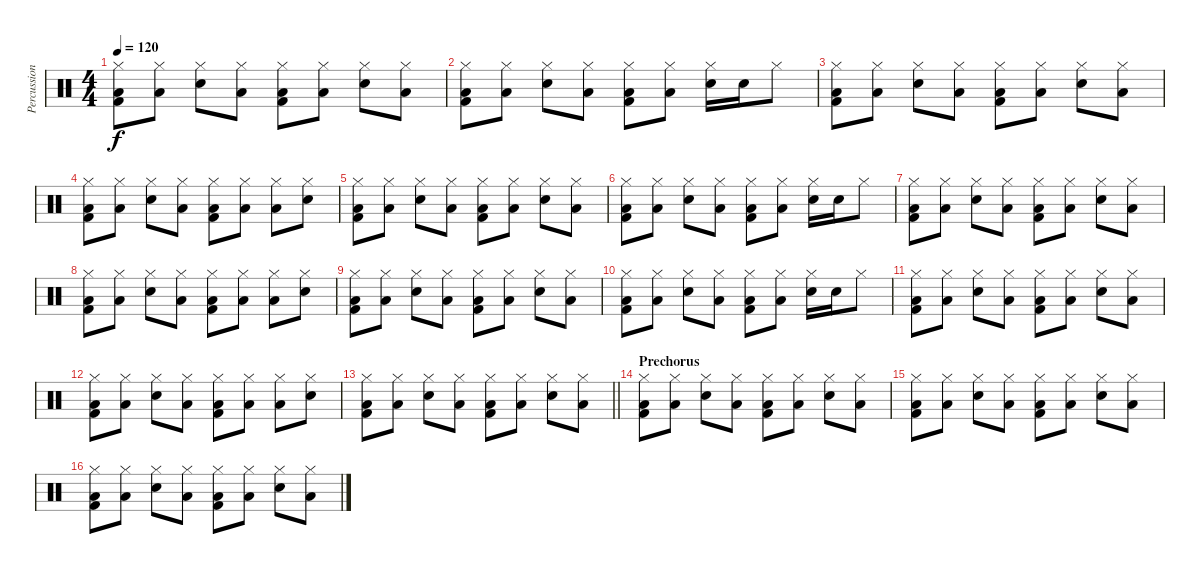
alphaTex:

\track ("Percussion" "Percussion") {instrument percussion}
\staff
\articulation defaults
\ts (4 4)
\tempo 120
\clef neutral
\ks c
("Hi-Hat (closed)" "Low Floor Tom (hit)" "Kick (hit) 2").8{dy f} ("Hi-Hat (closed)" "Low Floor Tom (hit)").8 ("Hi-Hat (closed)" "Snare (hit) 2").8 ("Hi-Hat (closed)" "Low Floor Tom (hit)").8 ("Hi-Hat (closed)" "Low Floor Tom (hit)" "Kick (hit) 2").8 ("Hi-Hat (closed)" "Low Floor Tom (hit)").8 ("Hi-Hat (closed)" "Snare (hit) 2").8 ("Hi-Hat (closed)" "Low Floor Tom (hit)").8 |
("Hi-Hat (closed)" "Low Floor Tom (hit)" "Kick (hit) 2").8 ("Hi-Hat (closed)" "Low Floor Tom (hit)").8 ("Hi-Hat (closed)" "Snare (hit) 2").8 ("Hi-Hat (closed)" "Low Floor Tom (hit)").8 ("Hi-Hat (closed)" "Low Floor Tom (hit)" "Kick (hit) 2").8 ("Hi-Hat (closed)" "Low Floor Tom (hit)").8 ("Hi-Hat (closed)" "Snare (hit) 2").16 "Snare (hit) 2".16 "Hi-Hat (closed)".8 |
("Hi-Hat (closed)" "Low Floor Tom (hit)" "Kick (hit) 2").8 ("Hi-Hat (closed)" "Low Floor Tom (hit)").8 ("Hi-Hat (closed)" "Snare (hit) 2").8 ("Hi-Hat (closed)" "Low Floor Tom (hit)").8 ("Hi-Hat (closed)" "Low Floor Tom (hit)" "Kick (hit) 2").8 ("Hi-Hat (closed)" "Low Floor Tom (hit)").8 ("Hi-Hat (closed)" "Snare (hit) 2").8 ("Hi-Hat (closed)" "Low Floor Tom (hit)").8 |
("Hi-Hat (closed)" "Low Floor Tom (hit)" "Kick (hit) 2").8 ("Hi-Hat (closed)" "Low Floor Tom (hit)").8 ("Hi-Hat (closed)" "Snare (hit) 2").8 ("Hi-Hat (closed)" "Low Floor Tom (hit)").8 ("Hi-Hat (closed)" "Low Floor Tom (hit)" "Kick (hit) 2").8 ("Hi-Hat (closed)" "Low Floor Tom (hit)").8 ("Hi-Hat (closed)" "Low Floor Tom (hit)").8 ("Hi-Hat (closed)" "Snare (hit) 2").8 |
("Hi-Hat (closed)" "Low Floor Tom (hit)" "Kick (hit) 2").8 ("Hi-Hat (closed)" "Low Floor Tom (hit)").8 ("Hi-Hat (closed)" "Snare (hit) 2").8 ("Hi-Hat (closed)" "Low Floor Tom (hit)").8 ("Hi-Hat (closed)" "Low Floor Tom (hit)" "Kick (hit) 2").8 ("Hi-Hat (closed)" "Low Floor Tom (hit)").8 ("Hi-Hat (closed)" "Snare (hit) 2").8 ("Hi-Hat (closed)" "Low Floor Tom (hit)").8 |
("Hi-Hat (closed)" "Low Floor Tom (hit)" "Kick (hit) 2").8 ("Hi-Hat (closed)" "Low Floor Tom (hit)").8 ("Hi-Hat (closed)" "Snare (hit) 2").8 ("Hi-Hat (closed)" "Low Floor Tom (hit)").8 ("Hi-Hat (closed)" "Low Floor Tom (hit)" "Kick (hit) 2").8 ("Hi-Hat (closed)" "Low Floor Tom (hit)").8 ("Hi-Hat (closed)" "Snare (hit) 2").16 "Snare (hit) 2".16 "Hi-Hat (closed)".8 |
("Hi-Hat (closed)" "Low Floor Tom (hit)" "Kick (hit) 2").8 ("Hi-Hat (closed)" "Low Floor Tom (hit)").8 ("Hi-Hat (closed)" "Snare (hit) 2").8 ("Hi-Hat (closed)" "Low Floor Tom (hit)").8 ("Hi-Hat (closed)" "Low Floor Tom (hit)" "Kick (hit) 2").8 ("Hi-Hat (closed)" "Low Floor Tom (hit)").8 ("Hi-Hat (closed)" "Snare (hit) 2").8 ("Hi-Hat (closed)" "Low Floor Tom (hit)").8 |
("Hi-Hat (closed)" "Low Floor Tom (hit)" "Kick (hit) 2").8 ("Hi-Hat (closed)" "Low Floor Tom (hit)").8 ("Hi-Hat (closed)" "Snare (hit) 2").8 ("Hi-Hat (closed)" "Low Floor Tom (hit)").8 ("Hi-Hat (closed)" "Low Floor Tom (hit)" "Kick (hit) 2").8 ("Hi-Hat (closed)" "Low Floor Tom (hit)").8 ("Hi-Hat (closed)" "Low Floor Tom (hit)").8 ("Hi-Hat (closed)" "Snare (hit) 2").8 |
("Hi-Hat (closed)" "Low Floor Tom (hit)" "Kick (hit) 2").8 ("Hi-Hat (closed)" "Low Floor Tom (hit)").8 ("Hi-Hat (closed)" "Snare (hit) 2").8 ("Hi-Hat (closed)" "Low Floor Tom (hit)").8 ("Hi-Hat (closed)" "Low Floor Tom (hit)" "Kick (hit) 2").8 ("Hi-Hat (closed)" "Low Floor Tom (hit)").8 ("Hi-Hat (closed)" "Snare (hit) 2").8 ("Hi-Hat (closed)" "Low Floor Tom (hit)").8 |
("Hi-Hat (closed)" "Low Floor Tom (hit)" "Kick (hit) 2").8 ("Hi-Hat (closed)" "Low Floor Tom (hit)").8 ("Hi-Hat (closed)" "Snare (hit) 2").8 ("Hi-Hat (closed)" "Low Floor Tom (hit)").8 ("Hi-Hat (closed)" "Low Floor Tom (hit)" "Kick (hit) 2").8 ("Hi-Hat (closed)" "Low Floor Tom (hit)").8 ("Hi-Hat (closed)" "Snare (hit) 2").16 "Snare (hit) 2".16 "Hi-Hat (closed)".8 |
("Hi-Hat (closed)" "Low Floor Tom (hit)" "Kick (hit) 2").8 ("Hi-Hat (closed)" "Low Floor Tom (hit)").8 ("Hi-Hat (closed)" "Snare (hit) 2").8 ("Hi-Hat (closed)" "Low Floor Tom (hit)").8 ("Hi-Hat (closed)" "Low Floor Tom (hit)" "Kick (hit) 2").8 ("Hi-Hat (closed)" "Low Floor Tom (hit)").8 ("Hi-Hat (closed)" "Snare (hit) 2").8 ("Hi-Hat (closed)" "Low Floor Tom (hit)").8 |
("Hi-Hat (closed)" "Low Floor Tom (hit)" "Kick (hit) 2").8 ("Hi-Hat (closed)" "Low Floor Tom (hit)").8 ("Hi-Hat (closed)" "Snare (hit) 2").8 ("Hi-Hat (closed)" "Low Floor Tom (hit)").8 ("Hi-Hat (closed)" "Low Floor Tom (hit)" "Kick (hit) 2").8 ("Hi-Hat (closed)" "Low Floor Tom (hit)").8 ("Hi-Hat (closed)" "Low Floor Tom (hit)").8 ("Hi-Hat (closed)" "Snare (hit) 2").8 |
\barLineRight lightlight
("Hi-Hat (closed)" "Low Floor Tom (hit)" "Kick (hit) 2").8 ("Hi-Hat (closed)" "Low Floor Tom (hit)").8 ("Hi-Hat (closed)" "Snare (hit) 2").8 ("Hi-Hat (closed)" "Low Floor Tom (hit)").8 ("Hi-Hat (closed)" "Low Floor Tom (hit)" "Kick (hit) 2").8 ("Hi-Hat (closed)" "Low Floor Tom (hit)").8 ("Hi-Hat (closed)" "Snare (hit) 2").8 ("Hi-Hat (closed)" "Low Floor Tom (hit)").8 |
\section ("" "Prechorus")
("Hi-Hat (closed)" "Low Floor Tom (hit)" "Kick (hit) 2").8 ("Hi-Hat (closed)" "Low Floor Tom (hit)").8 ("Hi-Hat (closed)" "Snare (hit) 2").8 ("Hi-Hat (closed)" "Low Floor Tom (hit)").8 ("Hi-Hat (closed)" "Low Floor Tom (hit)" "Kick (hit) 2").8 ("Hi-Hat (closed)" "Low Floor Tom (hit)").8 ("Hi-Hat (closed)" "Snare (hit) 2").8 ("Hi-Hat (closed)" "Low Floor Tom (hit)").8 |
("Hi-Hat (closed)" "Low Floor Tom (hit)" "Kick (hit) 2").8 ("Hi-Hat (closed)" "Low Floor Tom (hit)").8 ("Hi-Hat (closed)" "Snare (hit) 2").8 ("Hi-Hat (closed)" "Low Floor Tom (hit)").8 ("Hi-Hat (closed)" "Low Floor Tom (hit)" "Kick (hit) 2").8 ("Hi-Hat (closed)" "Low Floor Tom (hit)").8 ("Hi-Hat (closed)" "Snare (hit) 2").8 ("Hi-Hat (closed)" "Low Floor Tom (hit)").8 |
("Hi-Hat (closed)" "Low Floor Tom (hit)" "Kick (hit) 2").8 ("Hi-Hat (closed)" "Low Floor Tom (hit)").8 ("Hi-Hat (closed)" "Snare (hit) 2").8 ("Hi-Hat (closed)" "Low Floor Tom (hit)").8 ("Hi-Hat (closed)" "Low Floor Tom (hit)" "Kick (hit) 2").8 ("Hi-Hat (closed)" "Low Floor Tom (hit)").8 ("Hi-Hat (closed)" "Snare (hit) 2").8 ("Hi-Hat (closed)" "Low Floor Tom (hit)").8
